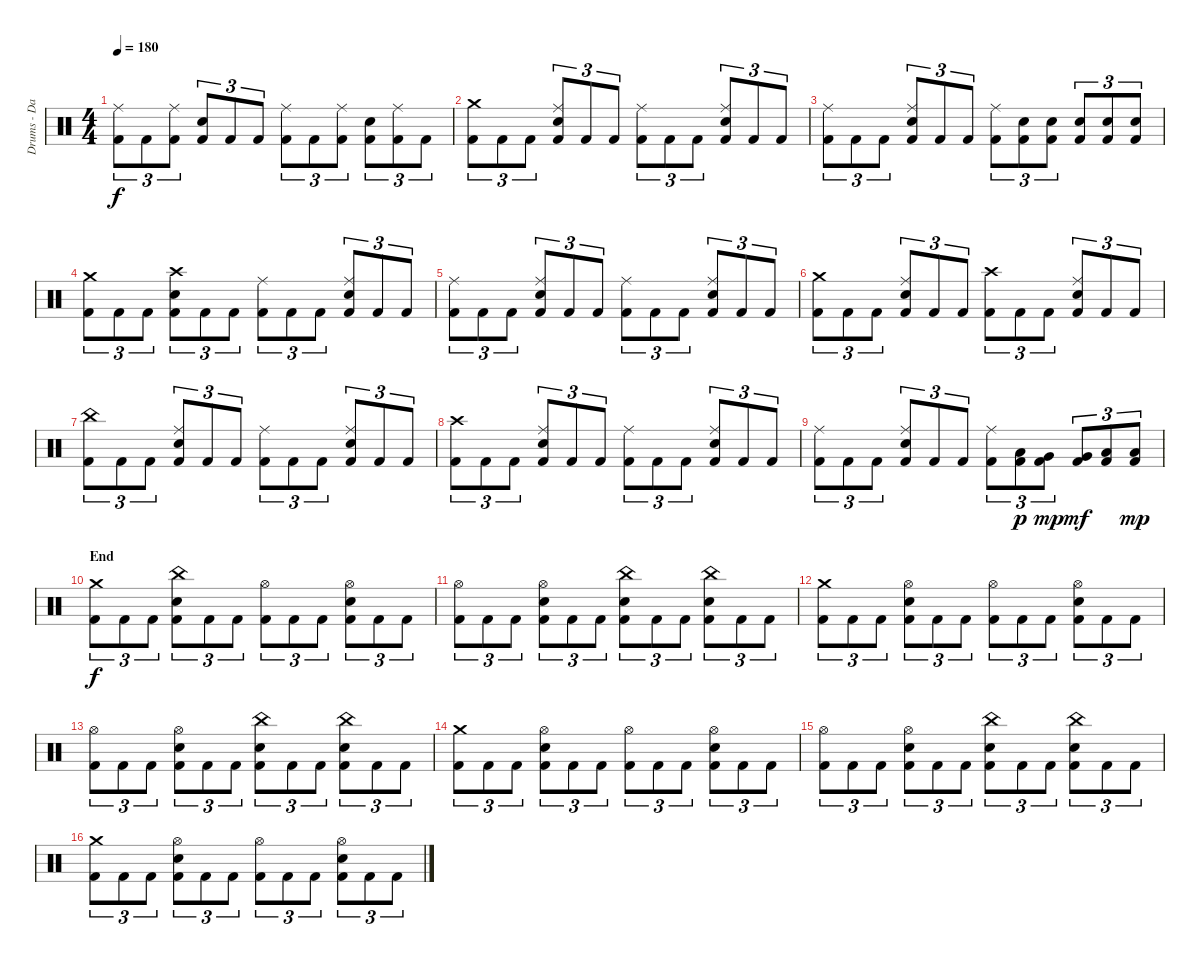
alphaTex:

\track ("Drums - Dan Zimmermann" "Drums - Da") {instrument percussion}
\staff {score}
\articulation defaults
\ts (4 4)
\tempo 180
\clef neutral
\ks c
("Kick (hit) 2" "Ride (middle)").8{tu (3 2) dy f} "Kick (hit) 2".8{tu (3 2)} ("Kick (hit) 2" "Ride (middle)").8{tu (3 2)} ("Kick (hit) 2" "Electric Snare (hit)").8{tu (3 2)} "Kick (hit) 2".8{tu (3 2)} "Kick (hit) 2".8{tu (3 2)} ("Kick (hit) 2" "Ride (middle)").8{tu (3 2)} "Kick (hit) 2".8{tu (3 2)} ("Kick (hit) 2" "Ride (middle)").8{tu (3 2)} ("Kick (hit) 2" "Electric Snare (hit)").8{tu (3 2)} ("Kick (hit) 2" "Ride (middle)").8{tu (3 2)} "Kick (hit) 2".8{tu (3 2)} |
("Kick (hit) 2" "Crash medium (hit)").8{tu (3 2)} "Kick (hit) 2".8{tu (3 2)} "Kick (hit) 2".8{tu (3 2)} ("Kick (hit) 2" "Electric Snare (hit)" "Ride (middle)").8{tu (3 2)} "Kick (hit) 2".8{tu (3 2)} "Kick (hit) 2".8{tu (3 2)} ("Kick (hit) 2" "Ride (middle)").8{tu (3 2)} "Kick (hit) 2".8{tu (3 2)} "Kick (hit) 2".8{tu (3 2)} ("Kick (hit) 2" "Electric Snare (hit)" "Ride (middle)").8{tu (3 2)} "Kick (hit) 2".8{tu (3 2)} "Kick (hit) 2".8{tu (3 2)} |
("Kick (hit) 2" "Ride (middle)").8{tu (3 2)} "Kick (hit) 2".8{tu (3 2)} "Kick (hit) 2".8{tu (3 2)} ("Kick (hit) 2" "Electric Snare (hit)" "Ride (middle)").8{tu (3 2)} "Kick (hit) 2".8{tu (3 2)} "Kick (hit) 2".8{tu (3 2)} ("Kick (hit) 2" "Ride (middle)").8{tu (3 2)} ("Kick (hit) 2" "Electric Snare (hit)").8{tu (3 2)} ("Kick (hit) 2" "Electric Snare (hit)").8{tu (3 2)} ("Kick (hit) 2" "Electric Snare (hit)").8{tu (3 2)} ("Kick (hit) 2" "Electric Snare (hit)").8{tu (3 2)} ("Kick (hit) 2" "Electric Snare (hit)").8{tu (3 2)} |
("Kick (hit) 2" "Crash medium (hit)").8{tu (3 2)} "Kick (hit) 2".8{tu (3 2)} "Kick (hit) 2".8{tu (3 2)} ("Kick (hit) 2" "Electric Snare (hit)" "Crash high (hit)").8{tu (3 2)} "Kick (hit) 2".8{tu (3 2)} "Kick (hit) 2".8{tu (3 2)} ("Kick (hit) 2" "Ride (middle)").8{tu (3 2)} "Kick (hit) 2".8{tu (3 2)} "Kick (hit) 2".8{tu (3 2)} ("Kick (hit) 2" "Electric Snare (hit)" "Ride (middle)").8{tu (3 2)} "Kick (hit) 2".8{tu (3 2)} "Kick (hit) 2".8{tu (3 2)} |
("Kick (hit) 2" "Ride (middle)").8{tu (3 2)} "Kick (hit) 2".8{tu (3 2)} "Kick (hit) 2".8{tu (3 2)} ("Kick (hit) 2" "Electric Snare (hit)" "Ride (middle)").8{tu (3 2)} "Kick (hit) 2".8{tu (3 2)} "Kick (hit) 2".8{tu (3 2)} ("Kick (hit) 2" "Ride (middle)").8{tu (3 2)} "Kick (hit) 2".8{tu (3 2)} "Kick (hit) 2".8{tu (3 2)} ("Kick (hit) 2" "Electric Snare (hit)" "Ride (middle)").8{tu (3 2)} "Kick (hit) 2".8{tu (3 2)} "Kick (hit) 2".8{tu (3 2)} |
("Kick (hit) 2" "Crash medium (hit)").8{tu (3 2)} "Kick (hit) 2".8{tu (3 2)} "Kick (hit) 2".8{tu (3 2)} ("Kick (hit) 2" "Electric Snare (hit)" "Ride (middle)").8{tu (3 2)} "Kick (hit) 2".8{tu (3 2)} "Kick (hit) 2".8{tu (3 2)} ("Kick (hit) 2" "Crash high (hit)").8{tu (3 2)} "Kick (hit) 2".8{tu (3 2)} "Kick (hit) 2".8{tu (3 2)} ("Kick (hit) 2" "Electric Snare (hit)" "Ride (middle)").8{tu (3 2)} "Kick (hit) 2".8{tu (3 2)} "Kick (hit) 2".8{tu (3 2)} |
("Kick (hit) 2" "China (hit)").8{tu (3 2)} "Kick (hit) 2".8{tu (3 2)} "Kick (hit) 2".8{tu (3 2)} ("Kick (hit) 2" "Electric Snare (hit)" "Ride (middle)").8{tu (3 2)} "Kick (hit) 2".8{tu (3 2)} "Kick (hit) 2".8{tu (3 2)} ("Kick (hit) 2" "Ride (middle)").8{tu (3 2)} "Kick (hit) 2".8{tu (3 2)} "Kick (hit) 2".8{tu (3 2)} ("Kick (hit) 2" "Electric Snare (hit)" "Ride (middle)").8{tu (3 2)} "Kick (hit) 2".8{tu (3 2)} "Kick (hit) 2".8{tu (3 2)} |
("Kick (hit) 2" "Crash high (hit)").8{tu (3 2)} "Kick (hit) 2".8{tu (3 2)} "Kick (hit) 2".8{tu (3 2)} ("Kick (hit) 2" "Electric Snare (hit)" "Ride (middle)").8{tu (3 2)} "Kick (hit) 2".8{tu (3 2)} "Kick (hit) 2".8{tu (3 2)} ("Kick (hit) 2" "Ride (middle)").8{tu (3 2)} "Kick (hit) 2".8{tu (3 2)} "Kick (hit) 2".8{tu (3 2)} ("Kick (hit) 2" "Electric Snare (hit)" "Ride (middle)").8{tu (3 2)} "Kick (hit) 2".8{tu (3 2)} "Kick (hit) 2".8{tu (3 2)} |
("Kick (hit) 2" "Ride (middle)").8{tu (3 2)} "Kick (hit) 2".8{tu (3 2)} "Kick (hit) 2".8{tu (3 2)} ("Kick (hit) 2" "Electric Snare (hit)" "Ride (middle)").8{tu (3 2)} "Kick (hit) 2".8{tu (3 2)} "Kick (hit) 2".8{tu (3 2)} ("Kick (hit) 2" "Ride (middle)").8{tu (3 2)} ("Kick (hit) 2" "Low Tom (hit)").8{tu (3 2) dy p} ("Kick (hit) 2" "Very Low Tom (hit)").8{tu (3 2) dy mp} ("Kick (hit) 2" "Very Low Tom (hit)").8{tu (3 2) dy mf} ("Kick (hit) 2" "Low Floor Tom (hit)").8{tu (3 2)} ("Kick (hit) 2" "Low Floor Tom (hit)").8{tu (3 2) dy mp} |
\section ("" "End")
("Kick (hit) 2" "Crash medium (hit)").8{tu (3 2) dy f} "Kick (hit) 2".8{tu (3 2)} "Kick (hit) 2".8{tu (3 2)} ("Kick (hit) 2" "Electric Snare (hit)" "China (hit)").8{tu (3 2)} "Kick (hit) 2".8{tu (3 2)} "Kick (hit) 2".8{tu (3 2)} ("Kick (hit) 2" "Hi-Hat (open)").8{tu (3 2)} "Kick (hit) 2".8{tu (3 2)} "Kick (hit) 2".8{tu (3 2)} ("Kick (hit) 2" "Electric Snare (hit)" "Hi-Hat (open)").8{tu (3 2)} "Kick (hit) 2".8{tu (3 2)} "Kick (hit) 2".8{tu (3 2)} |
("Kick (hit) 2" "Hi-Hat (open)").8{tu (3 2)} "Kick (hit) 2".8{tu (3 2)} "Kick (hit) 2".8{tu (3 2)} ("Kick (hit) 2" "Electric Snare (hit)" "Hi-Hat (open)").8{tu (3 2)} "Kick (hit) 2".8{tu (3 2)} "Kick (hit) 2".8{tu (3 2)} ("Kick (hit) 2" "Electric Snare (hit)" "China (hit)").8{tu (3 2)} "Kick (hit) 2".8{tu (3 2)} "Kick (hit) 2".8{tu (3 2)} ("Kick (hit) 2" "Electric Snare (hit)" "China (hit)").8{tu (3 2)} "Kick (hit) 2".8{tu (3 2)} "Kick (hit) 2".8{tu (3 2)} |
("Kick (hit) 2" "Crash medium (hit)").8{tu (3 2)} "Kick (hit) 2".8{tu (3 2)} "Kick (hit) 2".8{tu (3 2)} ("Kick (hit) 2" "Electric Snare (hit)" "Hi-Hat (open)").8{tu (3 2)} "Kick (hit) 2".8{tu (3 2)} "Kick (hit) 2".8{tu (3 2)} ("Kick (hit) 2" "Hi-Hat (open)").8{tu (3 2)} "Kick (hit) 2".8{tu (3 2)} "Kick (hit) 2".8{tu (3 2)} ("Kick (hit) 2" "Electric Snare (hit)" "Hi-Hat (open)").8{tu (3 2)} "Kick (hit) 2".8{tu (3 2)} "Kick (hit) 2".8{tu (3 2)} |
("Kick (hit) 2" "Hi-Hat (open)").8{tu (3 2)} "Kick (hit) 2".8{tu (3 2)} "Kick (hit) 2".8{tu (3 2)} ("Kick (hit) 2" "Electric Snare (hit)" "Hi-Hat (open)").8{tu (3 2)} "Kick (hit) 2".8{tu (3 2)} "Kick (hit) 2".8{tu (3 2)} ("Kick (hit) 2" "Electric Snare (hit)" "China (hit)").8{tu (3 2)} "Kick (hit) 2".8{tu (3 2)} "Kick (hit) 2".8{tu (3 2)} ("Kick (hit) 2" "Electric Snare (hit)" "China (hit)").8{tu (3 2)} "Kick (hit) 2".8{tu (3 2)} "Kick (hit) 2".8{tu (3 2)} |
("Kick (hit) 2" "Crash medium (hit)").8{tu (3 2)} "Kick (hit) 2".8{tu (3 2)} "Kick (hit) 2".8{tu (3 2)} ("Kick (hit) 2" "Electric Snare (hit)" "Hi-Hat (open)").8{tu (3 2)} "Kick (hit) 2".8{tu (3 2)} "Kick (hit) 2".8{tu (3 2)} ("Kick (hit) 2" "Hi-Hat (open)").8{tu (3 2)} "Kick (hit) 2".8{tu (3 2)} "Kick (hit) 2".8{tu (3 2)} ("Kick (hit) 2" "Electric Snare (hit)" "Hi-Hat (open)").8{tu (3 2)} "Kick (hit) 2".8{tu (3 2)} "Kick (hit) 2".8{tu (3 2)} |
("Kick (hit) 2" "Hi-Hat (open)").8{tu (3 2)} "Kick (hit) 2".8{tu (3 2)} "Kick (hit) 2".8{tu (3 2)} ("Kick (hit) 2" "Electric Snare (hit)" "Hi-Hat (open)").8{tu (3 2)} "Kick (hit) 2".8{tu (3 2)} "Kick (hit) 2".8{tu (3 2)} ("Kick (hit) 2" "Electric Snare (hit)" "China (hit)").8{tu (3 2)} "Kick (hit) 2".8{tu (3 2)} "Kick (hit) 2".8{tu (3 2)} ("Kick (hit) 2" "Electric Snare (hit)" "China (hit)").8{tu (3 2)} "Kick (hit) 2".8{tu (3 2)} "Kick (hit) 2".8{tu (3 2)} |
("Kick (hit) 2" "Crash medium (hit)").8{tu (3 2)} "Kick (hit) 2".8{tu (3 2)} "Kick (hit) 2".8{tu (3 2)} ("Kick (hit) 2" "Electric Snare (hit)" "Hi-Hat (open)").8{tu (3 2)} "Kick (hit) 2".8{tu (3 2)} "Kick (hit) 2".8{tu (3 2)} ("Kick (hit) 2" "Hi-Hat (open)").8{tu (3 2)} "Kick (hit) 2".8{tu (3 2)} "Kick (hit) 2".8{tu (3 2)} ("Kick (hit) 2" "Electric Snare (hit)" "Hi-Hat (open)").8{tu (3 2)} "Kick (hit) 2".8{tu (3 2)} "Kick (hit) 2".8{tu (3 2)}
